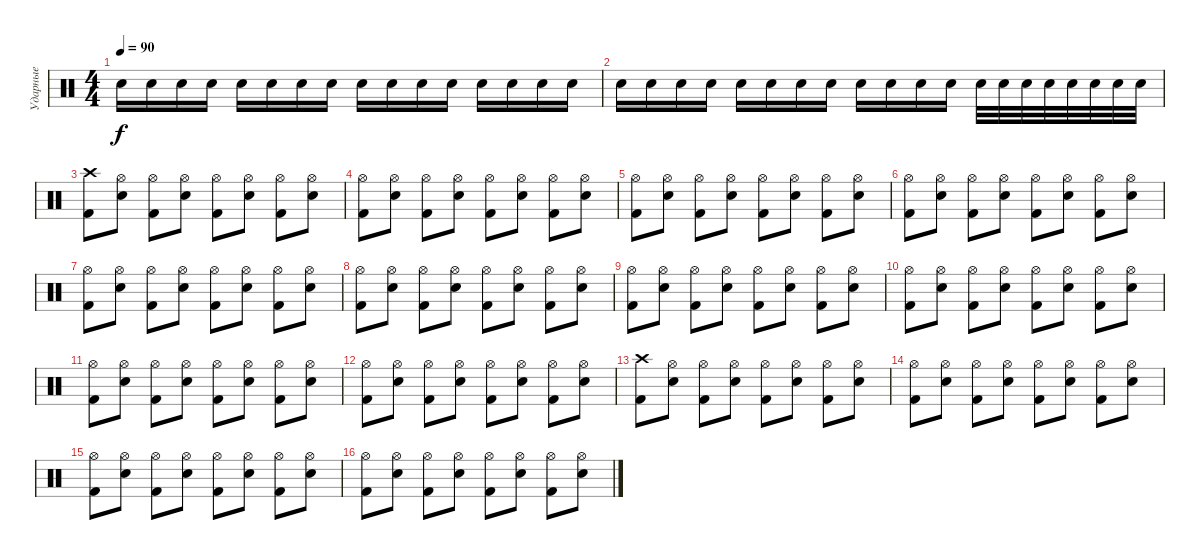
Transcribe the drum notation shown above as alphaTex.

\track ("Ударные" "Ударные") {instrument percussion}
\staff {score}
\articulation defaults
\ts (4 4)
\tempo 90
\clef neutral
\ks c "Snare (hit) 2".16{dy f} "Snare (hit) 2".16 "Snare (hit) 2".16 "Snare (hit) 2".16 "Snare (hit) 2".16 "Snare (hit) 2".16 "Snare (hit) 2".16 "Snare (hit) 2".16 "Snare (hit) 2".16 "Snare (hit) 2".16 "Snare (hit) 2".16 "Snare (hit) 2".16 "Snare (hit) 2".16 "Snare (hit) 2".16 "Snare (hit) 2".16 "Snare (hit) 2".16
|
"Snare (hit) 2".16 "Snare (hit) 2".16 "Snare (hit) 2".16 "Snare (hit) 2".16 "Snare (hit) 2".16 "Snare (hit) 2".16 "Snare (hit) 2".16 "Snare (hit) 2".16 "Snare (hit) 2".16 "Snare (hit) 2".16 "Snare (hit) 2".16 "Snare (hit) 2".16 "Snare (hit) 2".32 "Snare (hit) 2".32 "Snare (hit) 2".32 "Snare (hit) 2".32 "Snare (hit) 2".32 "Snare (hit) 2".32 "Snare (hit) 2".32 "Snare (hit) 2".32 |
("Crash high (hit)" "Kick (hit) 2").8 ("Electric Snare (hit)" "Hi-Hat (open)").8 ("Kick (hit) 2" "Hi-Hat (open)").8 ("Electric Snare (hit)" "Hi-Hat (open)").8 ("Kick (hit) 2" "Hi-Hat (open)").8 ("Electric Snare (hit)" "Hi-Hat (open)").8 ("Kick (hit) 2" "Hi-Hat (open)").8 ("Electric Snare (hit)" "Hi-Hat (open)").8 |
("Kick (hit) 2" "Hi-Hat (open)").8 ("Electric Snare (hit)" "Hi-Hat (open)").8 ("Kick (hit) 2" "Hi-Hat (open)").8 ("Electric Snare (hit)" "Hi-Hat (open)").8 ("Kick (hit) 2" "Hi-Hat (open)").8 ("Electric Snare (hit)" "Hi-Hat (open)").8 ("Kick (hit) 2" "Hi-Hat (open)").8 ("Electric Snare (hit)" "Hi-Hat (open)").8 |
("Kick (hit) 2" "Hi-Hat (open)").8 ("Electric Snare (hit)" "Hi-Hat (open)").8 ("Kick (hit) 2" "Hi-Hat (open)").8 ("Electric Snare (hit)" "Hi-Hat (open)").8 ("Kick (hit) 2" "Hi-Hat (open)").8 ("Electric Snare (hit)" "Hi-Hat (open)").8 ("Kick (hit) 2" "Hi-Hat (open)").8 ("Electric Snare (hit)" "Hi-Hat (open)").8 |
("Kick (hit) 2" "Hi-Hat (open)").8 ("Electric Snare (hit)" "Hi-Hat (open)").8 ("Kick (hit) 2" "Hi-Hat (open)").8 ("Electric Snare (hit)" "Hi-Hat (open)").8 ("Kick (hit) 2" "Hi-Hat (open)").8 ("Electric Snare (hit)" "Hi-Hat (open)").8 ("Kick (hit) 2" "Hi-Hat (open)").8 ("Electric Snare (hit)" "Hi-Hat (open)").8 |
("Kick (hit) 2" "Hi-Hat (open)").8 ("Electric Snare (hit)" "Hi-Hat (open)").8 ("Kick (hit) 2" "Hi-Hat (open)").8 ("Electric Snare (hit)" "Hi-Hat (open)").8 ("Kick (hit) 2" "Hi-Hat (open)").8 ("Electric Snare (hit)" "Hi-Hat (open)").8 ("Kick (hit) 2" "Hi-Hat (open)").8 ("Electric Snare (hit)" "Hi-Hat (open)").8 |
("Kick (hit) 2" "Hi-Hat (open)").8 ("Electric Snare (hit)" "Hi-Hat (open)").8 ("Kick (hit) 2" "Hi-Hat (open)").8 ("Electric Snare (hit)" "Hi-Hat (open)").8 ("Kick (hit) 2" "Hi-Hat (open)").8 ("Electric Snare (hit)" "Hi-Hat (open)").8 ("Kick (hit) 2" "Hi-Hat (open)").8 ("Electric Snare (hit)" "Hi-Hat (open)").8 |
("Kick (hit) 2" "Hi-Hat (open)").8 ("Electric Snare (hit)" "Hi-Hat (open)").8 ("Kick (hit) 2" "Hi-Hat (open)").8 ("Electric Snare (hit)" "Hi-Hat (open)").8 ("Kick (hit) 2" "Hi-Hat (open)").8 ("Electric Snare (hit)" "Hi-Hat (open)").8 ("Kick (hit) 2" "Hi-Hat (open)").8 ("Electric Snare (hit)" "Hi-Hat (open)").8 |
("Kick (hit) 2" "Hi-Hat (open)").8 ("Electric Snare (hit)" "Hi-Hat (open)").8 ("Kick (hit) 2" "Hi-Hat (open)").8 ("Electric Snare (hit)" "Hi-Hat (open)").8 ("Kick (hit) 2" "Hi-Hat (open)").8 ("Electric Snare (hit)" "Hi-Hat (open)").8 ("Kick (hit) 2" "Hi-Hat (open)").8 ("Electric Snare (hit)" "Hi-Hat (open)").8 |
("Kick (hit) 2" "Hi-Hat (open)").8 ("Electric Snare (hit)" "Hi-Hat (open)").8 ("Kick (hit) 2" "Hi-Hat (open)").8 ("Electric Snare (hit)" "Hi-Hat (open)").8 ("Kick (hit) 2" "Hi-Hat (open)").8 ("Electric Snare (hit)" "Hi-Hat (open)").8 ("Kick (hit) 2" "Hi-Hat (open)").8 ("Electric Snare (hit)" "Hi-Hat (open)").8 |
("Kick (hit) 2" "Hi-Hat (open)").8 ("Electric Snare (hit)" "Hi-Hat (open)").8 ("Kick (hit) 2" "Hi-Hat (open)").8 ("Electric Snare (hit)" "Hi-Hat (open)").8 ("Kick (hit) 2" "Hi-Hat (open)").8 ("Electric Snare (hit)" "Hi-Hat (open)").8 ("Kick (hit) 2" "Hi-Hat (open)").8 ("Electric Snare (hit)" "Hi-Hat (open)").8 |
("Crash high (hit)" "Kick (hit) 2").8 ("Electric Snare (hit)" "Hi-Hat (open)").8 ("Kick (hit) 2" "Hi-Hat (open)").8 ("Electric Snare (hit)" "Hi-Hat (open)").8 ("Kick (hit) 2" "Hi-Hat (open)").8 ("Electric Snare (hit)" "Hi-Hat (open)").8 ("Kick (hit) 2" "Hi-Hat (open)").8 ("Electric Snare (hit)" "Hi-Hat (open)").8 |
("Kick (hit) 2" "Hi-Hat (open)").8 ("Electric Snare (hit)" "Hi-Hat (open)").8 ("Kick (hit) 2" "Hi-Hat (open)").8 ("Electric Snare (hit)" "Hi-Hat (open)").8 ("Kick (hit) 2" "Hi-Hat (open)").8 ("Electric Snare (hit)" "Hi-Hat (open)").8 ("Kick (hit) 2" "Hi-Hat (open)").8 ("Electric Snare (hit)" "Hi-Hat (open)").8 |
("Kick (hit) 2" "Hi-Hat (open)").8 ("Electric Snare (hit)" "Hi-Hat (open)").8 ("Kick (hit) 2" "Hi-Hat (open)").8 ("Electric Snare (hit)" "Hi-Hat (open)").8 ("Kick (hit) 2" "Hi-Hat (open)").8 ("Electric Snare (hit)" "Hi-Hat (open)").8 ("Kick (hit) 2" "Hi-Hat (open)").8 ("Electric Snare (hit)" "Hi-Hat (open)").8 |
("Kick (hit) 2" "Hi-Hat (open)").8 ("Electric Snare (hit)" "Hi-Hat (open)").8 ("Kick (hit) 2" "Hi-Hat (open)").8 ("Electric Snare (hit)" "Hi-Hat (open)").8 ("Kick (hit) 2" "Hi-Hat (open)").8 ("Electric Snare (hit)" "Hi-Hat (open)").8 ("Kick (hit) 2" "Hi-Hat (open)").8 ("Electric Snare (hit)" "Hi-Hat (open)").8
